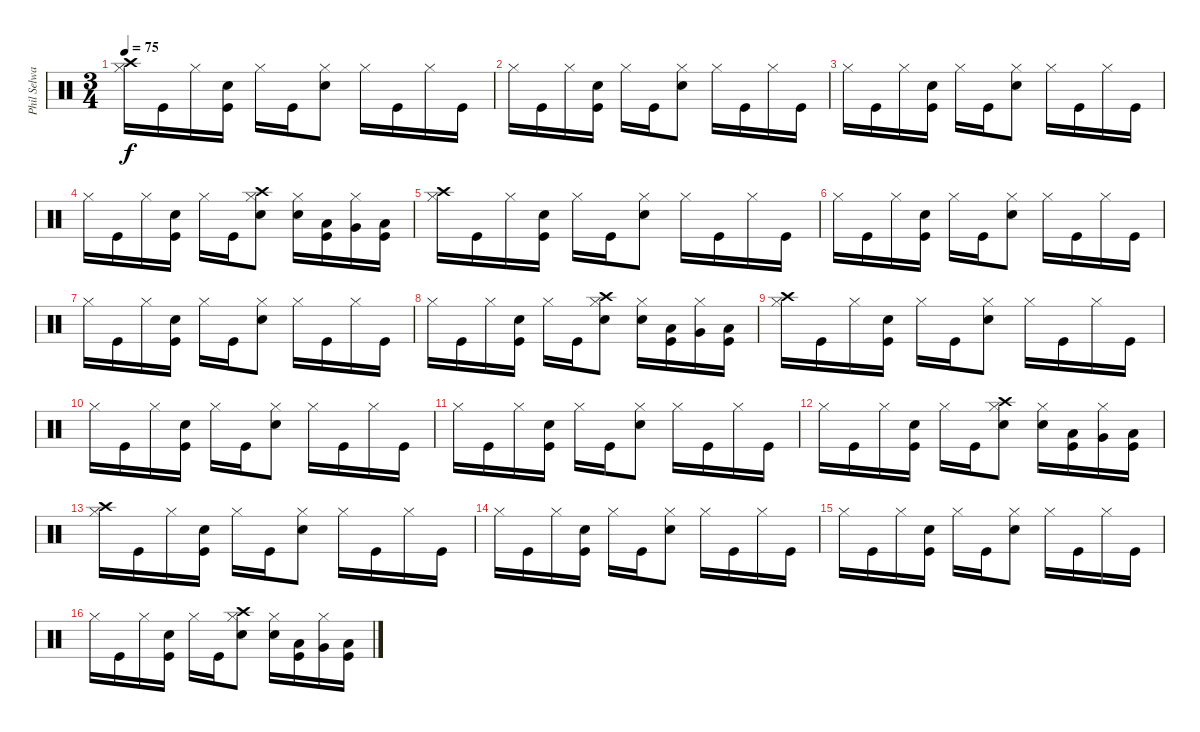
\track ("Phil Selway" "Phil Selwa") {instrument percussion}
\staff {score}
\articulation defaults
\ts (3 4)
\tempo 75
\clef neutral
\ks c
("Hi-Hat (closed)" "Crash high (hit)").16{dy f} "Kick (hit)".16 "Hi-Hat (closed)".16 ("Kick (hit)" "Snare (hit) 2").16 "Hi-Hat (closed)".16 "Kick (hit)".16 ("Snare (hit) 2" "Hi-Hat (closed)").8 "Hi-Hat (closed)".16 "Kick (hit)".16 "Hi-Hat (closed)".16 "Kick (hit)".16 |
"Hi-Hat (closed)".16 "Kick (hit)".16 "Hi-Hat (closed)".16 ("Kick (hit)" "Snare (hit) 2").16 "Hi-Hat (closed)".16 "Kick (hit)".16 ("Snare (hit) 2" "Hi-Hat (closed)").8 "Hi-Hat (closed)".16 "Kick (hit)".16 "Hi-Hat (closed)".16 "Kick (hit)".16 |
"Hi-Hat (closed)".16 "Kick (hit)".16 "Hi-Hat (closed)".16 ("Kick (hit)" "Snare (hit) 2").16 "Hi-Hat (closed)".16 "Kick (hit)".16 ("Snare (hit) 2" "Hi-Hat (closed)").8 "Hi-Hat (closed)".16 "Kick (hit)".16 "Hi-Hat (closed)".16 "Kick (hit)".16 |
"Hi-Hat (closed)".16 "Kick (hit)".16 "Hi-Hat (closed)".16 ("Kick (hit)" "Snare (hit) 2").16 "Hi-Hat (closed)".16 "Kick (hit)".16 ("Snare (hit) 2" "Hi-Hat (closed)" "Crash high (hit)").8 ("Snare (hit) 2" "Hi-Hat (closed)").16 ("Kick (hit)" "Low Tom (hit)").16 ("Hi-Hat (closed)" "Very Low Tom (hit)").16 ("Kick (hit)" "Low Floor Tom (hit)").16 |
("Hi-Hat (closed)" "Crash high (hit)").16 "Kick (hit)".16 "Hi-Hat (closed)".16 ("Kick (hit)" "Snare (hit) 2").16 "Hi-Hat (closed)".16 "Kick (hit)".16 ("Snare (hit) 2" "Hi-Hat (closed)").8 "Hi-Hat (closed)".16 "Kick (hit)".16 "Hi-Hat (closed)".16 "Kick (hit)".16 |
"Hi-Hat (closed)".16 "Kick (hit)".16 "Hi-Hat (closed)".16 ("Kick (hit)" "Snare (hit) 2").16 "Hi-Hat (closed)".16 "Kick (hit)".16 ("Snare (hit) 2" "Hi-Hat (closed)").8 "Hi-Hat (closed)".16 "Kick (hit)".16 "Hi-Hat (closed)".16 "Kick (hit)".16 |
"Hi-Hat (closed)".16 "Kick (hit)".16 "Hi-Hat (closed)".16 ("Kick (hit)" "Snare (hit) 2").16 "Hi-Hat (closed)".16 "Kick (hit)".16 ("Snare (hit) 2" "Hi-Hat (closed)").8 "Hi-Hat (closed)".16 "Kick (hit)".16 "Hi-Hat (closed)".16 "Kick (hit)".16 |
"Hi-Hat (closed)".16 "Kick (hit)".16 "Hi-Hat (closed)".16 ("Kick (hit)" "Snare (hit) 2").16 "Hi-Hat (closed)".16 "Kick (hit)".16 ("Snare (hit) 2" "Hi-Hat (closed)" "Crash high (hit)").8 ("Snare (hit) 2" "Hi-Hat (closed)").16 ("Kick (hit)" "Low Tom (hit)").16 ("Hi-Hat (closed)" "Very Low Tom (hit)").16 ("Kick (hit)" "Low Floor Tom (hit)").16 |
("Hi-Hat (closed)" "Crash high (hit)").16 "Kick (hit)".16 "Hi-Hat (closed)".16 ("Kick (hit)" "Snare (hit) 2").16 "Hi-Hat (closed)".16 "Kick (hit)".16 ("Snare (hit) 2" "Hi-Hat (closed)").8 "Hi-Hat (closed)".16 "Kick (hit)".16 "Hi-Hat (closed)".16 "Kick (hit)".16 |
"Hi-Hat (closed)".16 "Kick (hit)".16 "Hi-Hat (closed)".16 ("Kick (hit)" "Snare (hit) 2").16 "Hi-Hat (closed)".16 "Kick (hit)".16 ("Snare (hit) 2" "Hi-Hat (closed)").8 "Hi-Hat (closed)".16 "Kick (hit)".16 "Hi-Hat (closed)".16 "Kick (hit)".16 |
"Hi-Hat (closed)".16 "Kick (hit)".16 "Hi-Hat (closed)".16 ("Kick (hit)" "Snare (hit) 2").16 "Hi-Hat (closed)".16 "Kick (hit)".16 ("Snare (hit) 2" "Hi-Hat (closed)").8 "Hi-Hat (closed)".16 "Kick (hit)".16 "Hi-Hat (closed)".16 "Kick (hit)".16 |
"Hi-Hat (closed)".16 "Kick (hit)".16 "Hi-Hat (closed)".16 ("Kick (hit)" "Snare (hit) 2").16 "Hi-Hat (closed)".16 "Kick (hit)".16 ("Snare (hit) 2" "Hi-Hat (closed)" "Crash high (hit)").8 ("Snare (hit) 2" "Hi-Hat (closed)").16 ("Kick (hit)" "Low Tom (hit)").16 ("Hi-Hat (closed)" "Very Low Tom (hit)").16 ("Kick (hit)" "Low Floor Tom (hit)").16 |
("Hi-Hat (closed)" "Crash high (hit)").16 "Kick (hit)".16 "Hi-Hat (closed)".16 ("Kick (hit)" "Snare (hit) 2").16 "Hi-Hat (closed)".16 "Kick (hit)".16 ("Snare (hit) 2" "Hi-Hat (closed)").8 "Hi-Hat (closed)".16 "Kick (hit)".16 "Hi-Hat (closed)".16 "Kick (hit)".16 |
"Hi-Hat (closed)".16 "Kick (hit)".16 "Hi-Hat (closed)".16 ("Kick (hit)" "Snare (hit) 2").16 "Hi-Hat (closed)".16 "Kick (hit)".16 ("Snare (hit) 2" "Hi-Hat (closed)").8 "Hi-Hat (closed)".16 "Kick (hit)".16 "Hi-Hat (closed)".16 "Kick (hit)".16 |
"Hi-Hat (closed)".16 "Kick (hit)".16 "Hi-Hat (closed)".16 ("Kick (hit)" "Snare (hit) 2").16 "Hi-Hat (closed)".16 "Kick (hit)".16 ("Snare (hit) 2" "Hi-Hat (closed)").8 "Hi-Hat (closed)".16 "Kick (hit)".16 "Hi-Hat (closed)".16 "Kick (hit)".16 |
"Hi-Hat (closed)".16 "Kick (hit)".16 "Hi-Hat (closed)".16 ("Kick (hit)" "Snare (hit) 2").16 "Hi-Hat (closed)".16 "Kick (hit)".16 ("Snare (hit) 2" "Hi-Hat (closed)" "Crash high (hit)").8 ("Snare (hit) 2" "Hi-Hat (closed)").16 ("Kick (hit)" "Low Tom (hit)").16 ("Hi-Hat (closed)" "Very Low Tom (hit)").16 ("Kick (hit)" "Low Floor Tom (hit)").16
